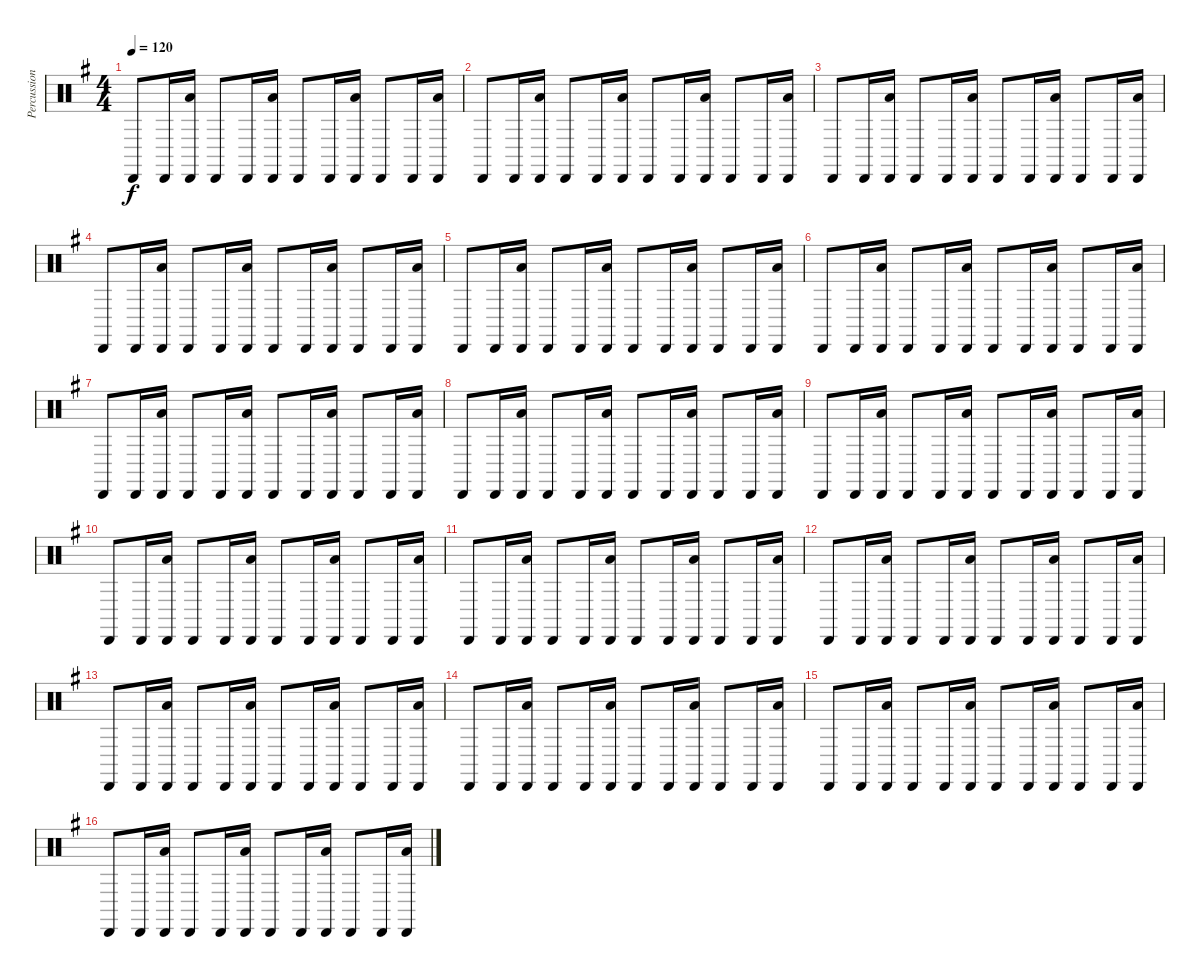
\track ("Percussion" "Percussion") {instrument percussion}
\staff {score}
\articulation defaults
\ts (4 4)
\tempo 120
\clef neutral
\ks g "Cabasa (hit)".8{dy f} "Cabasa (hit)".16
("Cabasa (hit)" "Low Floor Tom (hit)").16 "Cabasa (hit)".8 "Cabasa (hit)".16 ("Cabasa (hit)" "Low Floor Tom (hit)").16 "Cabasa (hit)".8 "Cabasa (hit)".16 ("Cabasa (hit)" "Low Floor Tom (hit)").16 "Cabasa (hit)".8 "Cabasa (hit)".16 ("Cabasa (hit)" "Low Floor Tom (hit)").16 |
"Cabasa (hit)".8 "Cabasa (hit)".16 ("Cabasa (hit)" "Low Floor Tom (hit)").16 "Cabasa (hit)".8 "Cabasa (hit)".16 ("Cabasa (hit)" "Low Floor Tom (hit)").16 "Cabasa (hit)".8 "Cabasa (hit)".16 ("Cabasa (hit)" "Low Floor Tom (hit)").16 "Cabasa (hit)".8 "Cabasa (hit)".16 ("Cabasa (hit)" "Low Floor Tom (hit)").16 |
"Cabasa (hit)".8 "Cabasa (hit)".16 ("Cabasa (hit)" "Low Floor Tom (hit)").16 "Cabasa (hit)".8 "Cabasa (hit)".16 ("Cabasa (hit)" "Low Floor Tom (hit)").16 "Cabasa (hit)".8 "Cabasa (hit)".16 ("Cabasa (hit)" "Low Floor Tom (hit)").16 "Cabasa (hit)".8 "Cabasa (hit)".16 ("Cabasa (hit)" "Low Floor Tom (hit)").16 |
"Cabasa (hit)".8 "Cabasa (hit)".16 ("Cabasa (hit)" "Low Floor Tom (hit)").16 "Cabasa (hit)".8 "Cabasa (hit)".16 ("Cabasa (hit)" "Low Floor Tom (hit)").16 "Cabasa (hit)".8 "Cabasa (hit)".16 ("Cabasa (hit)" "Low Floor Tom (hit)").16 "Cabasa (hit)".8 "Cabasa (hit)".16 ("Cabasa (hit)" "Low Floor Tom (hit)").16 |
"Cabasa (hit)".8 "Cabasa (hit)".16 ("Cabasa (hit)" "Low Floor Tom (hit)").16 "Cabasa (hit)".8 "Cabasa (hit)".16 ("Cabasa (hit)" "Low Floor Tom (hit)").16 "Cabasa (hit)".8 "Cabasa (hit)".16 ("Cabasa (hit)" "Low Floor Tom (hit)").16 "Cabasa (hit)".8 "Cabasa (hit)".16 ("Cabasa (hit)" "Low Floor Tom (hit)").16 |
"Cabasa (hit)".8 "Cabasa (hit)".16 ("Cabasa (hit)" "Low Floor Tom (hit)").16 "Cabasa (hit)".8 "Cabasa (hit)".16 ("Cabasa (hit)" "Low Floor Tom (hit)").16 "Cabasa (hit)".8 "Cabasa (hit)".16 ("Cabasa (hit)" "Low Floor Tom (hit)").16 "Cabasa (hit)".8 "Cabasa (hit)".16 ("Cabasa (hit)" "Low Floor Tom (hit)").16 |
"Cabasa (hit)".8 "Cabasa (hit)".16 ("Cabasa (hit)" "Low Floor Tom (hit)").16 "Cabasa (hit)".8 "Cabasa (hit)".16 ("Cabasa (hit)" "Low Floor Tom (hit)").16 "Cabasa (hit)".8 "Cabasa (hit)".16 ("Cabasa (hit)" "Low Floor Tom (hit)").16 "Cabasa (hit)".8 "Cabasa (hit)".16 ("Cabasa (hit)" "Low Floor Tom (hit)").16 |
"Cabasa (hit)".8 "Cabasa (hit)".16 ("Cabasa (hit)" "Low Floor Tom (hit)").16 "Cabasa (hit)".8 "Cabasa (hit)".16 ("Cabasa (hit)" "Low Floor Tom (hit)").16 "Cabasa (hit)".8 "Cabasa (hit)".16 ("Cabasa (hit)" "Low Floor Tom (hit)").16 "Cabasa (hit)".8 "Cabasa (hit)".16 ("Cabasa (hit)" "Low Floor Tom (hit)").16 |
"Cabasa (hit)".8 "Cabasa (hit)".16 ("Cabasa (hit)" "Low Floor Tom (hit)").16 "Cabasa (hit)".8 "Cabasa (hit)".16 ("Cabasa (hit)" "Low Floor Tom (hit)").16 "Cabasa (hit)".8 "Cabasa (hit)".16 ("Cabasa (hit)" "Low Floor Tom (hit)").16 "Cabasa (hit)".8 "Cabasa (hit)".16 ("Cabasa (hit)" "Low Floor Tom (hit)").16 |
"Cabasa (hit)".8 "Cabasa (hit)".16 ("Cabasa (hit)" "Low Floor Tom (hit)").16 "Cabasa (hit)".8 "Cabasa (hit)".16 ("Cabasa (hit)" "Low Floor Tom (hit)").16 "Cabasa (hit)".8 "Cabasa (hit)".16 ("Cabasa (hit)" "Low Floor Tom (hit)").16 "Cabasa (hit)".8 "Cabasa (hit)".16 ("Cabasa (hit)" "Low Floor Tom (hit)").16 |
"Cabasa (hit)".8 "Cabasa (hit)".16 ("Cabasa (hit)" "Low Floor Tom (hit)").16 "Cabasa (hit)".8 "Cabasa (hit)".16 ("Cabasa (hit)" "Low Floor Tom (hit)").16 "Cabasa (hit)".8 "Cabasa (hit)".16 ("Cabasa (hit)" "Low Floor Tom (hit)").16 "Cabasa (hit)".8 "Cabasa (hit)".16 ("Cabasa (hit)" "Low Floor Tom (hit)").16 |
"Cabasa (hit)".8 "Cabasa (hit)".16 ("Cabasa (hit)" "Low Floor Tom (hit)").16 "Cabasa (hit)".8 "Cabasa (hit)".16 ("Cabasa (hit)" "Low Floor Tom (hit)").16 "Cabasa (hit)".8 "Cabasa (hit)".16 ("Cabasa (hit)" "Low Floor Tom (hit)").16 "Cabasa (hit)".8 "Cabasa (hit)".16 ("Cabasa (hit)" "Low Floor Tom (hit)").16 |
"Cabasa (hit)".8 "Cabasa (hit)".16 ("Cabasa (hit)" "Low Floor Tom (hit)").16 "Cabasa (hit)".8 "Cabasa (hit)".16 ("Cabasa (hit)" "Low Floor Tom (hit)").16 "Cabasa (hit)".8 "Cabasa (hit)".16 ("Cabasa (hit)" "Low Floor Tom (hit)").16 "Cabasa (hit)".8 "Cabasa (hit)".16 ("Cabasa (hit)" "Low Floor Tom (hit)").16 |
"Cabasa (hit)".8 "Cabasa (hit)".16 ("Cabasa (hit)" "Low Floor Tom (hit)").16 "Cabasa (hit)".8 "Cabasa (hit)".16 ("Cabasa (hit)" "Low Floor Tom (hit)").16 "Cabasa (hit)".8 "Cabasa (hit)".16 ("Cabasa (hit)" "Low Floor Tom (hit)").16 "Cabasa (hit)".8 "Cabasa (hit)".16 ("Cabasa (hit)" "Low Floor Tom (hit)").16 |
"Cabasa (hit)".8 "Cabasa (hit)".16 ("Cabasa (hit)" "Low Floor Tom (hit)").16 "Cabasa (hit)".8 "Cabasa (hit)".16 ("Cabasa (hit)" "Low Floor Tom (hit)").16 "Cabasa (hit)".8 "Cabasa (hit)".16 ("Cabasa (hit)" "Low Floor Tom (hit)").16 "Cabasa (hit)".8 "Cabasa (hit)".16 ("Cabasa (hit)" "Low Floor Tom (hit)").16 |
"Cabasa (hit)".8 "Cabasa (hit)".16 ("Cabasa (hit)" "Low Floor Tom (hit)").16 "Cabasa (hit)".8 "Cabasa (hit)".16 ("Cabasa (hit)" "Low Floor Tom (hit)").16 "Cabasa (hit)".8 "Cabasa (hit)".16 ("Cabasa (hit)" "Low Floor Tom (hit)").16 "Cabasa (hit)".8 "Cabasa (hit)".16 ("Cabasa (hit)" "Low Floor Tom (hit)").16
